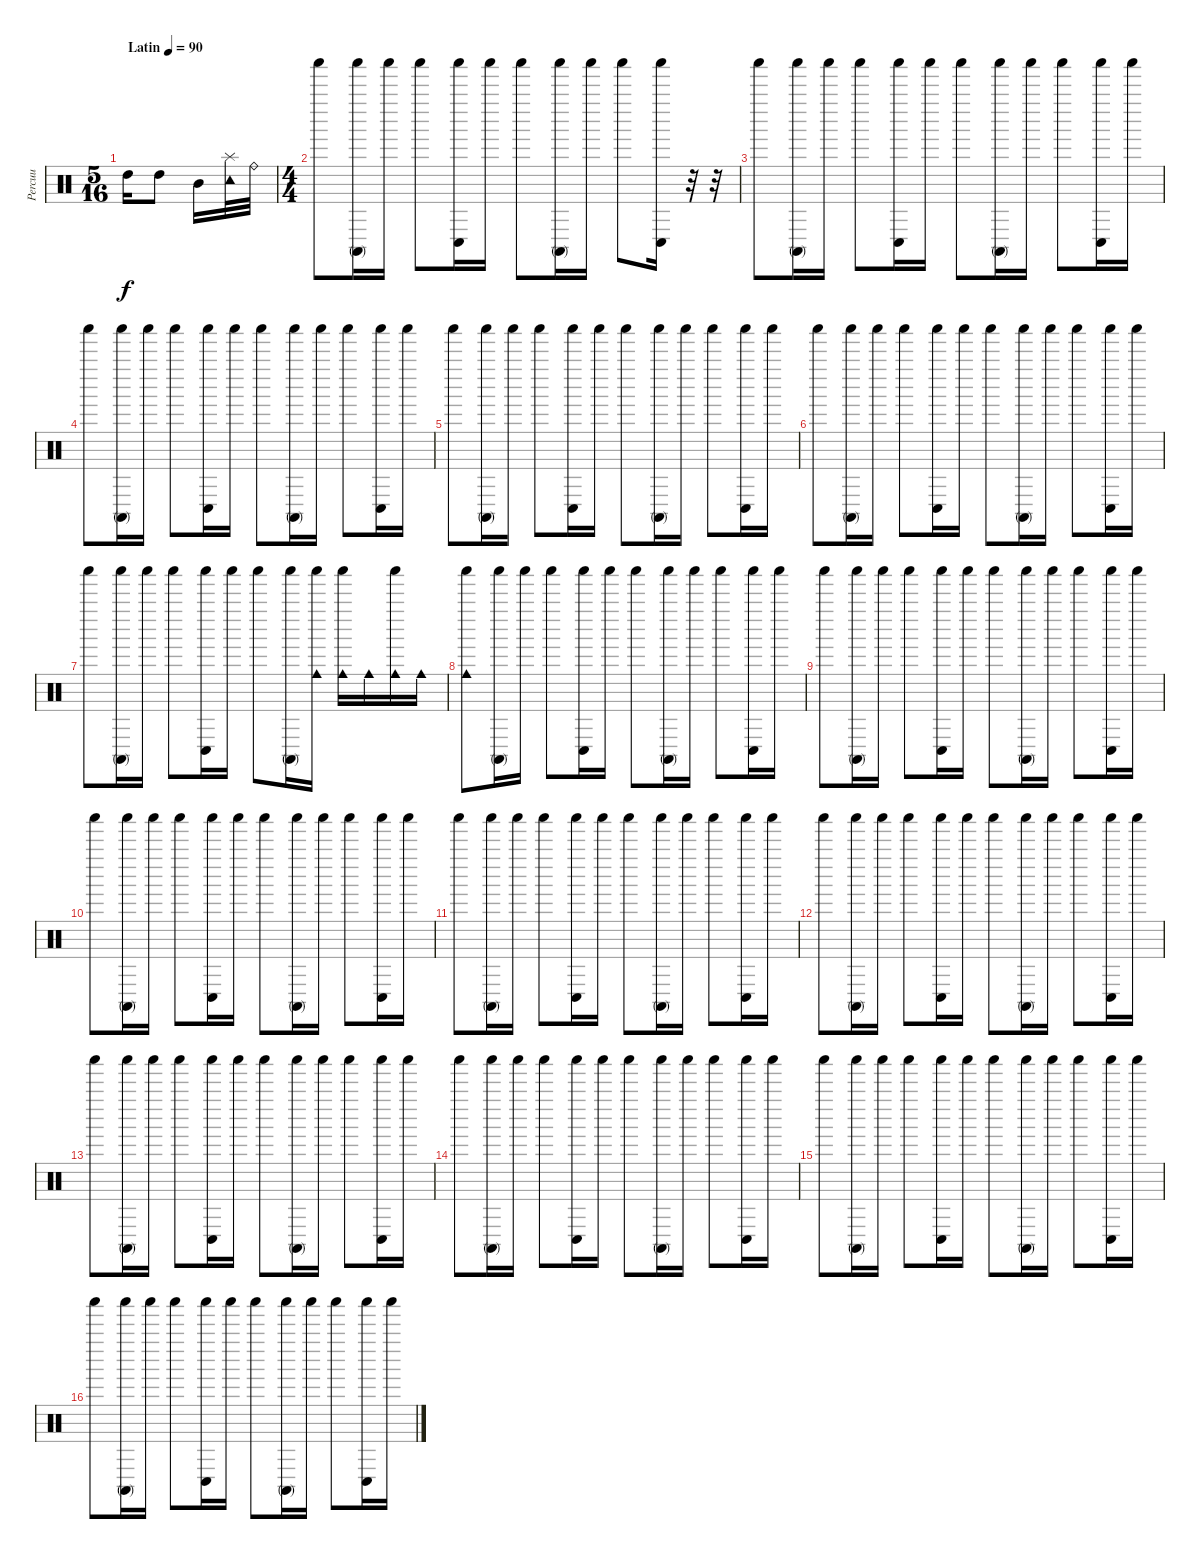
\track ("Percuu" "Percuu") {instrument percussion}
\staff {score}
\articulation defaults
\ts (5 16)
\tempo (90 "Latin")
\clef neutral
\ks c "High Tom (hit)".16{dy f} "High Tom (hit)".8 "Mid Tom (hit)".16
("Tambourine (hit)" "Splash (hit)").32 "Ride (bell)".32 |
\ts (4 4)
"Shaker (hit)".8 ("Conga high (mute)" "Shaker (hit)").16 "Shaker (hit)".16 "Shaker (hit)".8 ("Conga low (hit)" "Shaker (hit)").16 "Shaker (hit)".16 "Shaker (hit)".8 ("Conga high (mute)" "Shaker (hit)").16 "Shaker (hit)".16 "Shaker (hit)".8 ("Conga low (hit)" "Shaker (hit)").16 r.32 r.32 |
"Shaker (hit)".8 ("Conga high (mute)" "Shaker (hit)").16 "Shaker (hit)".16 "Shaker (hit)".8 ("Conga low (hit)" "Shaker (hit)").16 "Shaker (hit)".16 "Shaker (hit)".8 ("Conga high (mute)" "Shaker (hit)").16 "Shaker (hit)".16 "Shaker (hit)".8 ("Conga low (hit)" "Shaker (hit)").16 "Shaker (hit)".16 |
"Shaker (hit)".8 ("Conga high (mute)" "Shaker (hit)").16 "Shaker (hit)".16 "Shaker (hit)".8 ("Conga low (hit)" "Shaker (hit)").16 "Shaker (hit)".16 "Shaker (hit)".8 ("Conga high (mute)" "Shaker (hit)").16 "Shaker (hit)".16 "Shaker (hit)".8 ("Conga low (hit)" "Shaker (hit)").16 "Shaker (hit)".16 |
"Shaker (hit)".8 ("Conga high (mute)" "Shaker (hit)").16 "Shaker (hit)".16 "Shaker (hit)".8 ("Conga low (hit)" "Shaker (hit)").16 "Shaker (hit)".16 "Shaker (hit)".8 ("Conga high (mute)" "Shaker (hit)").16 "Shaker (hit)".16 "Shaker (hit)".8 ("Conga low (hit)" "Shaker (hit)").16 "Shaker (hit)".16 |
"Shaker (hit)".8 ("Conga high (mute)" "Shaker (hit)").16 "Shaker (hit)".16 "Shaker (hit)".8 ("Conga low (hit)" "Shaker (hit)").16 "Shaker (hit)".16 "Shaker (hit)".8 ("Conga high (mute)" "Shaker (hit)").16 "Shaker (hit)".16 "Shaker (hit)".8 ("Conga low (hit)" "Shaker (hit)").16 "Shaker (hit)".16 |
"Shaker (hit)".8 ("Conga high (mute)" "Shaker (hit)").16 "Shaker (hit)".16 "Shaker (hit)".8 ("Conga low (hit)" "Shaker (hit)").16 "Shaker (hit)".16 "Shaker (hit)".8 ("Conga high (mute)" "Shaker (hit)").16 ("Cowbell medium (hit)" "Shaker (hit)").16 ("Cowbell medium (hit)" "Shaker (hit)").16 "Cowbell medium (hit)".16 ("Cowbell medium (hit)" "Shaker (hit)").16 "Cowbell medium (hit)".16 |
("Cowbell medium (hit)" "Shaker (hit)").8 ("Conga high (mute)" "Shaker (hit)").16 "Shaker (hit)".16 "Shaker (hit)".8 ("Conga low (hit)" "Shaker (hit)").16 "Shaker (hit)".16 "Shaker (hit)".8 ("Conga high (mute)" "Shaker (hit)").16 "Shaker (hit)".16 "Shaker (hit)".8 ("Conga low (hit)" "Shaker (hit)").16 "Shaker (hit)".16 |
"Shaker (hit)".8 ("Conga high (mute)" "Shaker (hit)").16 "Shaker (hit)".16 "Shaker (hit)".8 ("Conga low (hit)" "Shaker (hit)").16 "Shaker (hit)".16 "Shaker (hit)".8 ("Conga high (mute)" "Shaker (hit)").16 "Shaker (hit)".16 "Shaker (hit)".8 ("Conga low (hit)" "Shaker (hit)").16 "Shaker (hit)".16 |
"Shaker (hit)".8 ("Conga high (mute)" "Shaker (hit)").16 "Shaker (hit)".16 "Shaker (hit)".8 ("Conga low (hit)" "Shaker (hit)").16 "Shaker (hit)".16 "Shaker (hit)".8 ("Conga high (mute)" "Shaker (hit)").16 "Shaker (hit)".16 "Shaker (hit)".8 ("Conga low (hit)" "Shaker (hit)").16 "Shaker (hit)".16 |
"Shaker (hit)".8 ("Conga high (mute)" "Shaker (hit)").16 "Shaker (hit)".16 "Shaker (hit)".8 ("Conga low (hit)" "Shaker (hit)").16 "Shaker (hit)".16 "Shaker (hit)".8 ("Conga high (mute)" "Shaker (hit)").16 "Shaker (hit)".16 "Shaker (hit)".8 ("Conga low (hit)" "Shaker (hit)").16 "Shaker (hit)".16 |
"Shaker (hit)".8 ("Conga high (mute)" "Shaker (hit)").16 "Shaker (hit)".16 "Shaker (hit)".8 ("Conga low (hit)" "Shaker (hit)").16 "Shaker (hit)".16 "Shaker (hit)".8 ("Conga high (mute)" "Shaker (hit)").16 "Shaker (hit)".16 "Shaker (hit)".8 ("Conga low (hit)" "Shaker (hit)").16 "Shaker (hit)".16 |
"Shaker (hit)".8 ("Conga high (mute)" "Shaker (hit)").16 "Shaker (hit)".16 "Shaker (hit)".8 ("Conga low (hit)" "Shaker (hit)").16 "Shaker (hit)".16 "Shaker (hit)".8 ("Conga high (mute)" "Shaker (hit)").16 "Shaker (hit)".16 "Shaker (hit)".8 ("Conga low (hit)" "Shaker (hit)").16 "Shaker (hit)".16 |
"Shaker (hit)".8 ("Conga high (mute)" "Shaker (hit)").16 "Shaker (hit)".16 "Shaker (hit)".8 ("Conga low (hit)" "Shaker (hit)").16 "Shaker (hit)".16 "Shaker (hit)".8 ("Conga high (mute)" "Shaker (hit)").16 "Shaker (hit)".16 "Shaker (hit)".8 ("Conga low (hit)" "Shaker (hit)").16 "Shaker (hit)".16 |
"Shaker (hit)".8 ("Conga high (mute)" "Shaker (hit)").16 "Shaker (hit)".16 "Shaker (hit)".8 ("Conga low (hit)" "Shaker (hit)").16 "Shaker (hit)".16 "Shaker (hit)".8 ("Conga high (mute)" "Shaker (hit)").16 "Shaker (hit)".16 "Shaker (hit)".8 ("Conga low (hit)" "Shaker (hit)").16 "Shaker (hit)".16 |
"Shaker (hit)".8 ("Conga high (mute)" "Shaker (hit)").16 "Shaker (hit)".16 "Shaker (hit)".8 ("Conga low (hit)" "Shaker (hit)").16 "Shaker (hit)".16 "Shaker (hit)".8 ("Conga high (mute)" "Shaker (hit)").16 "Shaker (hit)".16 "Shaker (hit)".8 ("Conga low (hit)" "Shaker (hit)").16 "Shaker (hit)".16
